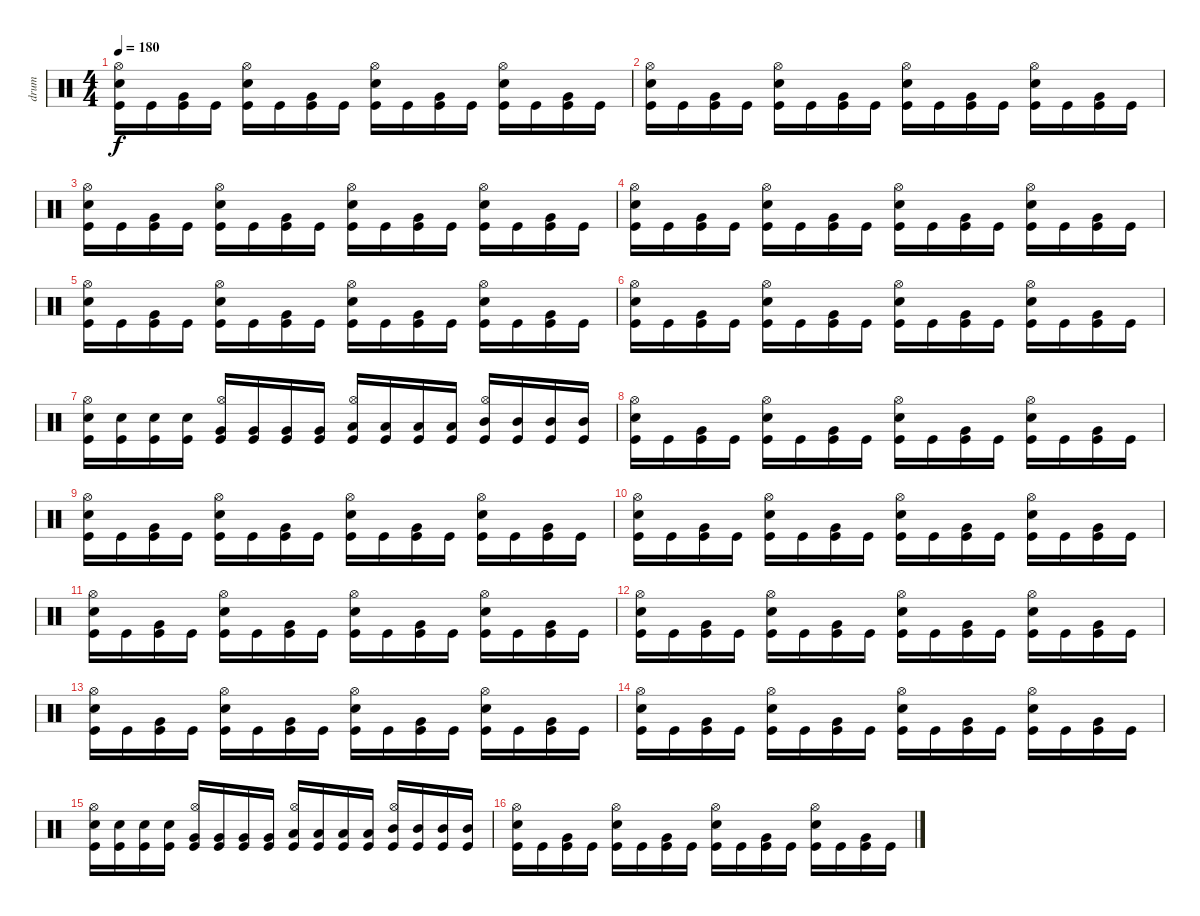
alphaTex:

\track ("drum" "drum") {instrument percussion}
\staff {score}
\articulation defaults
\ts (4 4)
\tempo 180
\clef neutral
\ks c
("Kick (hit)" "Snare (hit) 2" "Hi-Hat (open)").16{dy f} "Kick (hit)".16 ("Kick (hit)" "Very Low Tom (hit)").16 "Kick (hit)".16 ("Kick (hit)" "Snare (hit) 2" "Hi-Hat (open)").16 "Kick (hit)".16 ("Kick (hit)" "Very Low Tom (hit)").16 "Kick (hit)".16 ("Kick (hit)" "Snare (hit) 2" "Hi-Hat (open)").16 "Kick (hit)".16 ("Kick (hit)" "Very Low Tom (hit)").16 "Kick (hit)".16 ("Kick (hit)" "Snare (hit) 2" "Hi-Hat (open)").16 "Kick (hit)".16 ("Kick (hit)" "Very Low Tom (hit)").16 "Kick (hit)".16 |
("Kick (hit)" "Snare (hit) 2" "Hi-Hat (open)").16 "Kick (hit)".16 ("Kick (hit)" "Very Low Tom (hit)").16 "Kick (hit)".16 ("Kick (hit)" "Snare (hit) 2" "Hi-Hat (open)").16 "Kick (hit)".16 ("Kick (hit)" "Very Low Tom (hit)").16 "Kick (hit)".16 ("Kick (hit)" "Snare (hit) 2" "Hi-Hat (open)").16 "Kick (hit)".16 ("Kick (hit)" "Very Low Tom (hit)").16 "Kick (hit)".16 ("Kick (hit)" "Snare (hit) 2" "Hi-Hat (open)").16 "Kick (hit)".16 ("Kick (hit)" "Very Low Tom (hit)").16 "Kick (hit)".16 |
("Kick (hit)" "Snare (hit) 2" "Hi-Hat (open)").16 "Kick (hit)".16 ("Kick (hit)" "Very Low Tom (hit)").16 "Kick (hit)".16 ("Kick (hit)" "Snare (hit) 2" "Hi-Hat (open)").16 "Kick (hit)".16 ("Kick (hit)" "Very Low Tom (hit)").16 "Kick (hit)".16 ("Kick (hit)" "Snare (hit) 2" "Hi-Hat (open)").16 "Kick (hit)".16 ("Kick (hit)" "Very Low Tom (hit)").16 "Kick (hit)".16 ("Kick (hit)" "Snare (hit) 2" "Hi-Hat (open)").16 "Kick (hit)".16 ("Kick (hit)" "Very Low Tom (hit)").16 "Kick (hit)".16 |
("Kick (hit)" "Snare (hit) 2" "Hi-Hat (open)").16 "Kick (hit)".16 ("Kick (hit)" "Very Low Tom (hit)").16 "Kick (hit)".16 ("Kick (hit)" "Snare (hit) 2" "Hi-Hat (open)").16 "Kick (hit)".16 ("Kick (hit)" "Very Low Tom (hit)").16 "Kick (hit)".16 ("Kick (hit)" "Snare (hit) 2" "Hi-Hat (open)").16 "Kick (hit)".16 ("Kick (hit)" "Very Low Tom (hit)").16 "Kick (hit)".16 ("Kick (hit)" "Snare (hit) 2" "Hi-Hat (open)").16 "Kick (hit)".16 ("Kick (hit)" "Very Low Tom (hit)").16 "Kick (hit)".16 |
("Kick (hit)" "Snare (hit) 2" "Hi-Hat (open)").16 "Kick (hit)".16 ("Kick (hit)" "Very Low Tom (hit)").16 "Kick (hit)".16 ("Kick (hit)" "Snare (hit) 2" "Hi-Hat (open)").16 "Kick (hit)".16 ("Kick (hit)" "Very Low Tom (hit)").16 "Kick (hit)".16 ("Kick (hit)" "Snare (hit) 2" "Hi-Hat (open)").16 "Kick (hit)".16 ("Kick (hit)" "Very Low Tom (hit)").16 "Kick (hit)".16 ("Kick (hit)" "Snare (hit) 2" "Hi-Hat (open)").16 "Kick (hit)".16 ("Kick (hit)" "Very Low Tom (hit)").16 "Kick (hit)".16 |
("Kick (hit)" "Snare (hit) 2" "Hi-Hat (open)").16 "Kick (hit)".16 ("Kick (hit)" "Very Low Tom (hit)").16 "Kick (hit)".16 ("Kick (hit)" "Snare (hit) 2" "Hi-Hat (open)").16 "Kick (hit)".16 ("Kick (hit)" "Very Low Tom (hit)").16 "Kick (hit)".16 ("Kick (hit)" "Snare (hit) 2" "Hi-Hat (open)").16 "Kick (hit)".16 ("Kick (hit)" "Very Low Tom (hit)").16 "Kick (hit)".16 ("Kick (hit)" "Snare (hit) 2" "Hi-Hat (open)").16 "Kick (hit)".16 ("Kick (hit)" "Very Low Tom (hit)").16 "Kick (hit)".16 |
("Kick (hit)" "Snare (hit) 2" "Hi-Hat (open)").16 ("Kick (hit)" "Snare (hit) 2").16 ("Kick (hit)" "Snare (hit) 2").16 ("Kick (hit)" "Snare (hit) 2").16 ("Kick (hit)" "Very Low Tom (hit)" "Hi-Hat (open)").16 ("Kick (hit)" "Very Low Tom (hit)").16 ("Kick (hit)" "Very Low Tom (hit)").16 ("Kick (hit)" "Very Low Tom (hit)").16 ("Kick (hit)" "Low Tom (hit)" "Hi-Hat (open)").16 ("Kick (hit)" "Low Tom (hit)").16 ("Kick (hit)" "Low Tom (hit)").16 ("Kick (hit)" "Low Tom (hit)").16 ("Kick (hit)" "Mid Tom (hit)" "Hi-Hat (open)").16 ("Kick (hit)" "Mid Tom (hit)").16 ("Kick (hit)" "Mid Tom (hit)").16 ("Kick (hit)" "Mid Tom (hit)").16 |
("Kick (hit)" "Snare (hit) 2" "Hi-Hat (open)").16 "Kick (hit)".16 ("Kick (hit)" "Very Low Tom (hit)").16 "Kick (hit)".16 ("Kick (hit)" "Snare (hit) 2" "Hi-Hat (open)").16 "Kick (hit)".16 ("Kick (hit)" "Very Low Tom (hit)").16 "Kick (hit)".16 ("Kick (hit)" "Snare (hit) 2" "Hi-Hat (open)").16 "Kick (hit)".16 ("Kick (hit)" "Very Low Tom (hit)").16 "Kick (hit)".16 ("Kick (hit)" "Snare (hit) 2" "Hi-Hat (open)").16 "Kick (hit)".16 ("Kick (hit)" "Very Low Tom (hit)").16 "Kick (hit)".16 |
("Kick (hit)" "Snare (hit) 2" "Hi-Hat (open)").16 "Kick (hit)".16 ("Kick (hit)" "Very Low Tom (hit)").16 "Kick (hit)".16 ("Kick (hit)" "Snare (hit) 2" "Hi-Hat (open)").16 "Kick (hit)".16 ("Kick (hit)" "Very Low Tom (hit)").16 "Kick (hit)".16 ("Kick (hit)" "Snare (hit) 2" "Hi-Hat (open)").16 "Kick (hit)".16 ("Kick (hit)" "Very Low Tom (hit)").16 "Kick (hit)".16 ("Kick (hit)" "Snare (hit) 2" "Hi-Hat (open)").16 "Kick (hit)".16 ("Kick (hit)" "Very Low Tom (hit)").16 "Kick (hit)".16 |
("Kick (hit)" "Snare (hit) 2" "Hi-Hat (open)").16 "Kick (hit)".16 ("Kick (hit)" "Very Low Tom (hit)").16 "Kick (hit)".16 ("Kick (hit)" "Snare (hit) 2" "Hi-Hat (open)").16 "Kick (hit)".16 ("Kick (hit)" "Very Low Tom (hit)").16 "Kick (hit)".16 ("Kick (hit)" "Snare (hit) 2" "Hi-Hat (open)").16 "Kick (hit)".16 ("Kick (hit)" "Very Low Tom (hit)").16 "Kick (hit)".16 ("Kick (hit)" "Snare (hit) 2" "Hi-Hat (open)").16 "Kick (hit)".16 ("Kick (hit)" "Very Low Tom (hit)").16 "Kick (hit)".16 |
("Kick (hit)" "Snare (hit) 2" "Hi-Hat (open)").16 "Kick (hit)".16 ("Kick (hit)" "Very Low Tom (hit)").16 "Kick (hit)".16 ("Kick (hit)" "Snare (hit) 2" "Hi-Hat (open)").16 "Kick (hit)".16 ("Kick (hit)" "Very Low Tom (hit)").16 "Kick (hit)".16 ("Kick (hit)" "Snare (hit) 2" "Hi-Hat (open)").16 "Kick (hit)".16 ("Kick (hit)" "Very Low Tom (hit)").16 "Kick (hit)".16 ("Kick (hit)" "Snare (hit) 2" "Hi-Hat (open)").16 "Kick (hit)".16 ("Kick (hit)" "Very Low Tom (hit)").16 "Kick (hit)".16 |
("Kick (hit)" "Snare (hit) 2" "Hi-Hat (open)").16 "Kick (hit)".16 ("Kick (hit)" "Very Low Tom (hit)").16 "Kick (hit)".16 ("Kick (hit)" "Snare (hit) 2" "Hi-Hat (open)").16 "Kick (hit)".16 ("Kick (hit)" "Very Low Tom (hit)").16 "Kick (hit)".16 ("Kick (hit)" "Snare (hit) 2" "Hi-Hat (open)").16 "Kick (hit)".16 ("Kick (hit)" "Very Low Tom (hit)").16 "Kick (hit)".16 ("Kick (hit)" "Snare (hit) 2" "Hi-Hat (open)").16 "Kick (hit)".16 ("Kick (hit)" "Very Low Tom (hit)").16 "Kick (hit)".16 |
("Kick (hit)" "Snare (hit) 2" "Hi-Hat (open)").16 "Kick (hit)".16 ("Kick (hit)" "Very Low Tom (hit)").16 "Kick (hit)".16 ("Kick (hit)" "Snare (hit) 2" "Hi-Hat (open)").16 "Kick (hit)".16 ("Kick (hit)" "Very Low Tom (hit)").16 "Kick (hit)".16 ("Kick (hit)" "Snare (hit) 2" "Hi-Hat (open)").16 "Kick (hit)".16 ("Kick (hit)" "Very Low Tom (hit)").16 "Kick (hit)".16 ("Kick (hit)" "Snare (hit) 2" "Hi-Hat (open)").16 "Kick (hit)".16 ("Kick (hit)" "Very Low Tom (hit)").16 "Kick (hit)".16 |
("Kick (hit)" "Snare (hit) 2" "Hi-Hat (open)").16 "Kick (hit)".16 ("Kick (hit)" "Very Low Tom (hit)").16 "Kick (hit)".16 ("Kick (hit)" "Snare (hit) 2" "Hi-Hat (open)").16 "Kick (hit)".16 ("Kick (hit)" "Very Low Tom (hit)").16 "Kick (hit)".16 ("Kick (hit)" "Snare (hit) 2" "Hi-Hat (open)").16 "Kick (hit)".16 ("Kick (hit)" "Very Low Tom (hit)").16 "Kick (hit)".16 ("Kick (hit)" "Snare (hit) 2" "Hi-Hat (open)").16 "Kick (hit)".16 ("Kick (hit)" "Very Low Tom (hit)").16 "Kick (hit)".16 |
("Kick (hit)" "Snare (hit) 2" "Hi-Hat (open)").16 ("Kick (hit)" "Snare (hit) 2").16 ("Kick (hit)" "Snare (hit) 2").16 ("Kick (hit)" "Snare (hit) 2").16 ("Kick (hit)" "Very Low Tom (hit)" "Hi-Hat (open)").16 ("Kick (hit)" "Very Low Tom (hit)").16 ("Kick (hit)" "Very Low Tom (hit)").16 ("Kick (hit)" "Very Low Tom (hit)").16 ("Kick (hit)" "Low Tom (hit)" "Hi-Hat (open)").16 ("Kick (hit)" "Low Tom (hit)").16 ("Kick (hit)" "Low Tom (hit)").16 ("Kick (hit)" "Low Tom (hit)").16 ("Kick (hit)" "Mid Tom (hit)" "Hi-Hat (open)").16 ("Kick (hit)" "Mid Tom (hit)").16 ("Kick (hit)" "Mid Tom (hit)").16 ("Kick (hit)" "Mid Tom (hit)").16 |
("Kick (hit)" "Snare (hit) 2" "Hi-Hat (open)").16 "Kick (hit)".16 ("Kick (hit)" "Very Low Tom (hit)").16 "Kick (hit)".16 ("Kick (hit)" "Snare (hit) 2" "Hi-Hat (open)").16 "Kick (hit)".16 ("Kick (hit)" "Very Low Tom (hit)").16 "Kick (hit)".16 ("Kick (hit)" "Snare (hit) 2" "Hi-Hat (open)").16 "Kick (hit)".16 ("Kick (hit)" "Very Low Tom (hit)").16 "Kick (hit)".16 ("Kick (hit)" "Snare (hit) 2" "Hi-Hat (open)").16 "Kick (hit)".16 ("Kick (hit)" "Very Low Tom (hit)").16 "Kick (hit)".16
